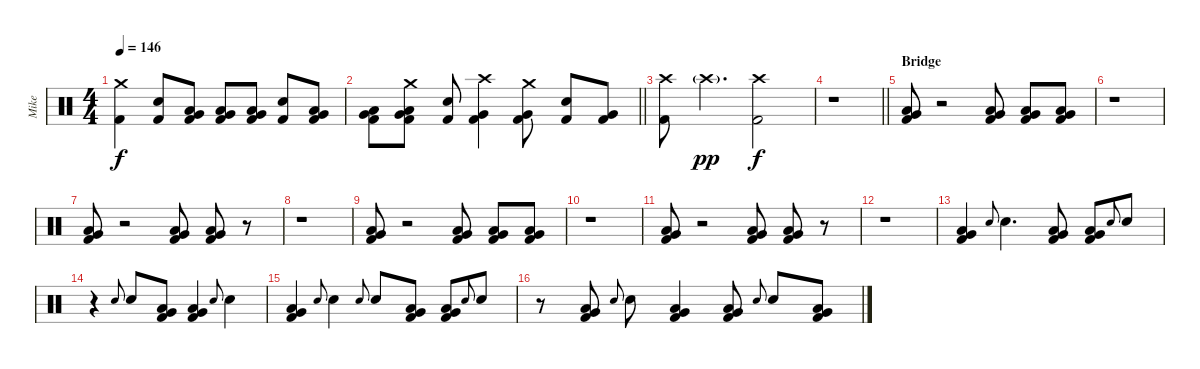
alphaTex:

\track ("Mike" "Mike") {instrument percussion}
\staff {score}
\articulation defaults
\ts (4 4)
\tempo 146
\clef neutral
\ks c
("Crash medium (hit)" "Kick (hit) 2").4{dy f} ("Snare (hit) 2" "Kick (hit) 2").8 ("Very Low Tom (hit)" "Low Floor Tom (hit)" "Kick (hit) 2").8 ("Low Tom (hit)" "Very Low Tom (hit)" "Kick (hit) 2").8 ("Very Low Tom (hit)" "Low Floor Tom (hit)" "Kick (hit) 2").8 ("Snare (hit) 2" "Kick (hit) 2").8 ("Very Low Tom (hit)" "Low Floor Tom (hit)" "Kick (hit) 2").8 |
\barLineRight lightlight
("Low Tom (hit)" "Very Low Tom (hit)" "Kick (hit) 2").8 ("Crash medium (hit)" "Very Low Tom (hit)" "Low Floor Tom (hit)" "Kick (hit) 2").8 ("Snare (hit) 2" "Kick (hit) 2").8 ("Crash high (hit)" "Very Low Tom (hit)" "Kick (hit) 2").4 ("Crash medium (hit)" "Very Low Tom (hit)" "Kick (hit) 2").8 ("Snare (hit) 2" "Kick (hit) 2").8 ("Very Low Tom (hit)" "Kick (hit) 2").8 |
("Crash high (hit)" "Kick (hit) 2").8 "Crash high (hit)"{g}.4{d dy pp} ("Crash high (hit)" "Kick (hit) 2").2{dy f} |
\barLineRight lightlight
r.1 |
\section ("" "Bridge")
("Very Low Tom (hit)" "Low Floor Tom (hit)" "Kick (hit) 2").8 r.2 ("Very Low Tom (hit)" "Low Floor Tom (hit)" "Kick (hit) 2").8 ("Very Low Tom (hit)" "Low Floor Tom (hit)" "Kick (hit) 2").8 ("Very Low Tom (hit)" "Low Floor Tom (hit)" "Kick (hit) 2").8 |
r.1 |
("Very Low Tom (hit)" "Low Floor Tom (hit)" "Kick (hit) 2").8 r.2 ("Very Low Tom (hit)" "Low Floor Tom (hit)" "Kick (hit) 2").8 ("Very Low Tom (hit)" "Low Floor Tom (hit)" "Kick (hit) 2").8 r.8 |
r.1 |
("Very Low Tom (hit)" "Low Floor Tom (hit)" "Kick (hit) 2").8 r.2 ("Very Low Tom (hit)" "Low Floor Tom (hit)" "Kick (hit) 2").8 ("Very Low Tom (hit)" "Low Floor Tom (hit)" "Kick (hit) 2").8 ("Very Low Tom (hit)" "Low Floor Tom (hit)" "Kick (hit) 2").8 |
r.1 |
("Very Low Tom (hit)" "Low Floor Tom (hit)" "Kick (hit) 2").8 r.2 ("Very Low Tom (hit)" "Low Floor Tom (hit)" "Kick (hit) 2").8 ("Very Low Tom (hit)" "Low Floor Tom (hit)" "Kick (hit) 2").8 r.8 |
r.1 |
("Very Low Tom (hit)" "Low Floor Tom (hit)" "Kick (hit) 2").4 "Snare (hit) 2".8{gr onbeat} "Snare (hit) 2".4{d} ("Very Low Tom (hit)" "Low Floor Tom (hit)" "Kick (hit) 2").8 ("Very Low Tom (hit)" "Low Floor Tom (hit)" "Kick (hit) 2").8 "Snare (hit) 2".8{gr onbeat} "Snare (hit) 2".8 |
r.4 "Snare (hit) 2".8{gr onbeat} "Snare (hit) 2".8 ("Very Low Tom (hit)" "Low Floor Tom (hit)" "Kick (hit) 2").8 ("Very Low Tom (hit)" "Low Floor Tom (hit)" "Kick (hit) 2").4 "Snare (hit) 2".8{gr onbeat} "Snare (hit) 2".4 |
("Very Low Tom (hit)" "Low Floor Tom (hit)" "Kick (hit) 2").4 "Snare (hit) 2".8{gr onbeat} "Snare (hit) 2".4 "Snare (hit) 2".8{gr onbeat} "Snare (hit) 2".8 ("Very Low Tom (hit)" "Low Floor Tom (hit)" "Kick (hit) 2").8 ("Very Low Tom (hit)" "Low Floor Tom (hit)" "Kick (hit) 2").8 "Snare (hit) 2".8{gr onbeat} "Snare (hit) 2".8 |
r.8 ("Very Low Tom (hit)" "Low Floor Tom (hit)" "Kick (hit) 2").8 "Snare (hit) 2".8{gr onbeat} "Snare (hit) 2".8 ("Very Low Tom (hit)" "Low Floor Tom (hit)" "Kick (hit) 2").4 ("Very Low Tom (hit)" "Low Floor Tom (hit)" "Kick (hit) 2").8 "Snare (hit) 2".8{gr onbeat} "Snare (hit) 2".8 ("Very Low Tom (hit)" "Low Floor Tom (hit)" "Kick (hit) 2").8
